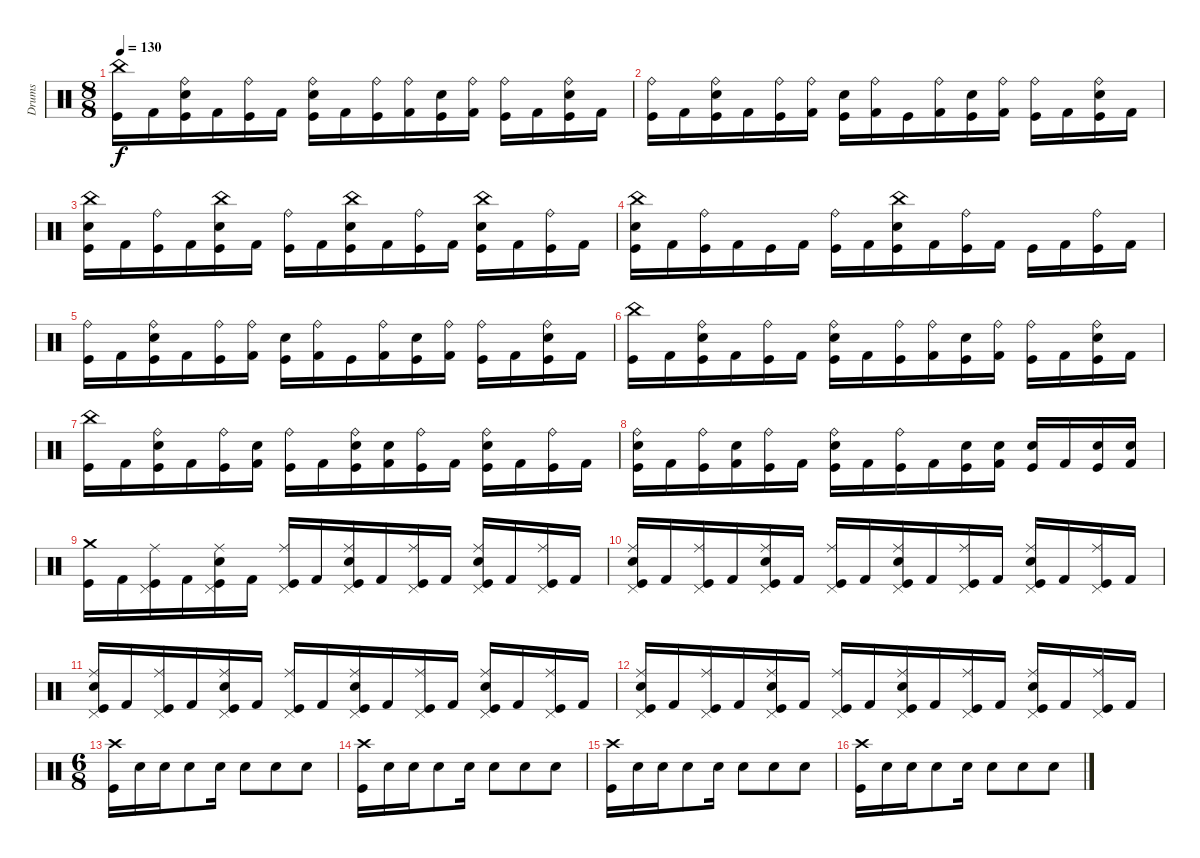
\track ("Drums" "Drums") {instrument percussion}
\staff {score}
\articulation defaults
\ts (8 8)
\tempo 130
\clef neutral
\ks c
("China (hit)" "Kick (hit)").16{dy f} "Kick (hit) 2".16 ("Ride (bell)" "Electric Snare (hit)" "Kick (hit)").16 "Kick (hit) 2".16 ("Ride (bell)" "Kick (hit)").16 "Kick (hit) 2".16 ("Ride (bell)" "Electric Snare (hit)" "Kick (hit)").16 "Kick (hit) 2".16 ("Ride (bell)" "Kick (hit)").16 ("Ride (bell)" "Kick (hit) 2").16 ("Electric Snare (hit)" "Kick (hit)").16 ("Ride (bell)" "Kick (hit) 2").16 ("Ride (bell)" "Kick (hit)").16 "Kick (hit) 2".16 ("Ride (bell)" "Electric Snare (hit)" "Kick (hit)").16 "Kick (hit) 2".16 |
("Ride (bell)" "Kick (hit)").16 "Kick (hit) 2".16 ("Ride (bell)" "Electric Snare (hit)" "Kick (hit)").16 "Kick (hit) 2".16 ("Ride (bell)" "Kick (hit)").16 ("Ride (bell)" "Kick (hit) 2").16 ("Electric Snare (hit)" "Kick (hit)").16 ("Ride (bell)" "Kick (hit) 2").16 "Kick (hit)".16 ("Ride (bell)" "Kick (hit) 2").16 ("Electric Snare (hit)" "Kick (hit)").16 ("Ride (bell)" "Kick (hit) 2").16 ("Ride (bell)" "Kick (hit)").16 "Kick (hit) 2".16 ("Ride (bell)" "Electric Snare (hit)" "Kick (hit)").16 "Kick (hit) 2".16 |
("China (hit)" "Snare (hit) 2" "Kick (hit)").16 "Kick (hit) 2".16 ("Ride (bell)" "Kick (hit)").16 "Kick (hit) 2".16 ("China (hit)" "Snare (hit) 2" "Kick (hit)").16 "Kick (hit) 2".16 ("Ride (bell)" "Kick (hit)").16 "Kick (hit) 2".16 ("China (hit)" "Snare (hit) 2" "Kick (hit)").16 "Kick (hit) 2".16 ("Ride (bell)" "Kick (hit)").16 "Kick (hit) 2".16 ("China (hit)" "Snare (hit) 2" "Kick (hit)").16 "Kick (hit) 2".16 ("Ride (bell)" "Kick (hit)").16 "Kick (hit) 2".16 |
("China (hit)" "Snare (hit) 2" "Kick (hit)").16 "Kick (hit) 2".16 ("Ride (bell)" "Kick (hit)").16 "Kick (hit) 2".16 "Kick (hit)".16 "Kick (hit) 2".16 ("Ride (bell)" "Kick (hit)").16 "Kick (hit) 2".16 ("China (hit)" "Snare (hit) 2" "Kick (hit)").16 "Kick (hit) 2".16 ("Ride (bell)" "Kick (hit)").16 "Kick (hit) 2".16 "Kick (hit)".16 "Kick (hit) 2".16 ("Ride (bell)" "Kick (hit)").16 "Kick (hit) 2".16 |
("Ride (bell)" "Kick (hit)").16 "Kick (hit) 2".16 ("Ride (bell)" "Electric Snare (hit)" "Kick (hit)").16 "Kick (hit) 2".16 ("Ride (bell)" "Kick (hit)").16 ("Ride (bell)" "Kick (hit) 2").16 ("Electric Snare (hit)" "Kick (hit)").16 ("Ride (bell)" "Kick (hit) 2").16 "Kick (hit)".16 ("Ride (bell)" "Kick (hit) 2").16 ("Electric Snare (hit)" "Kick (hit)").16 ("Ride (bell)" "Kick (hit) 2").16 ("Ride (bell)" "Kick (hit)").16 "Kick (hit) 2".16 ("Ride (bell)" "Electric Snare (hit)" "Kick (hit)").16 "Kick (hit) 2".16 |
("China (hit)" "Kick (hit)").16 "Kick (hit) 2".16 ("Ride (bell)" "Electric Snare (hit)" "Kick (hit)").16 "Kick (hit) 2".16 ("Ride (bell)" "Kick (hit)").16 "Kick (hit) 2".16 ("Ride (bell)" "Electric Snare (hit)" "Kick (hit)").16 "Kick (hit) 2".16 ("Ride (bell)" "Kick (hit)").16 ("Ride (bell)" "Kick (hit) 2").16 ("Electric Snare (hit)" "Kick (hit)").16 ("Ride (bell)" "Kick (hit) 2").16 ("Ride (bell)" "Kick (hit)").16 "Kick (hit) 2".16 ("Ride (bell)" "Electric Snare (hit)" "Kick (hit)").16 "Kick (hit) 2".16 |
("China (hit)" "Kick (hit)").16 "Kick (hit) 2".16 ("Ride (bell)" "Electric Snare (hit)" "Kick (hit)").16 "Kick (hit) 2".16 ("Ride (bell)" "Kick (hit)").16 ("Electric Snare (hit)" "Kick (hit) 2").16 ("Ride (bell)" "Kick (hit)").16 "Kick (hit) 2".16 ("Ride (bell)" "Electric Snare (hit)" "Kick (hit)").16 ("Electric Snare (hit)" "Kick (hit) 2").16 ("Ride (bell)" "Kick (hit)").16 "Kick (hit) 2".16 ("Ride (bell)" "Electric Snare (hit)" "Kick (hit)").16 "Kick (hit) 2".16 ("Ride (bell)" "Kick (hit)").16 "Kick (hit) 2".16 |
("Ride (bell)" "Electric Snare (hit)" "Kick (hit)").16 "Kick (hit) 2".16 ("Ride (bell)" "Kick (hit)").16 ("Electric Snare (hit)" "Kick (hit) 2").16 ("Ride (bell)" "Kick (hit)").16 "Kick (hit) 2".16 ("Ride (bell)" "Electric Snare (hit)" "Kick (hit)").16 "Kick (hit) 2".16 ("Ride (bell)" "Kick (hit)").16 "Kick (hit) 2".16 ("Snare (hit) 2" "Kick (hit)").16 ("Snare (hit) 2" "Kick (hit) 2").16 ("Snare (hit) 2" "Kick (hit)").16 "Kick (hit) 2".16 ("Snare (hit) 2" "Kick (hit)").16 ("Snare (hit) 2" "Kick (hit) 2").16 |
("Crash medium (hit)" "Kick (hit)").16 "Kick (hit) 2".16 ("Ride (middle)" "Pedal Hi-Hat (hit)" "Kick (hit)").16 "Kick (hit) 2".16 ("Ride (middle)" "Pedal Hi-Hat (hit)" "Kick (hit)" "Snare (hit) 2").16 "Kick (hit) 2".16 ("Ride (middle)" "Pedal Hi-Hat (hit)" "Kick (hit)").16 "Kick (hit) 2".16 ("Ride (middle)" "Pedal Hi-Hat (hit)" "Kick (hit)" "Snare (hit) 2").16 "Kick (hit) 2".16 ("Ride (middle)" "Pedal Hi-Hat (hit)" "Kick (hit)").16 "Kick (hit) 2".16 ("Ride (middle)" "Pedal Hi-Hat (hit)" "Kick (hit)" "Snare (hit) 2").16 "Kick (hit) 2".16 ("Ride (middle)" "Pedal Hi-Hat (hit)" "Kick (hit)").16 "Kick (hit) 2".16 |
("Snare (hit) 2" "Ride (middle)" "Kick (hit)" "Pedal Hi-Hat (hit)").16 "Kick (hit) 2".16 ("Ride (middle)" "Pedal Hi-Hat (hit)" "Kick (hit)").16 "Kick (hit) 2".16 ("Ride (middle)" "Pedal Hi-Hat (hit)" "Kick (hit)" "Snare (hit) 2").16 "Kick (hit) 2".16 ("Ride (middle)" "Pedal Hi-Hat (hit)" "Kick (hit)").16 "Kick (hit) 2".16 ("Ride (middle)" "Pedal Hi-Hat (hit)" "Kick (hit)" "Snare (hit) 2").16 "Kick (hit) 2".16 ("Ride (middle)" "Pedal Hi-Hat (hit)" "Kick (hit)").16 "Kick (hit) 2".16 ("Ride (middle)" "Pedal Hi-Hat (hit)" "Kick (hit)" "Snare (hit) 2").16 "Kick (hit) 2".16 ("Ride (middle)" "Pedal Hi-Hat (hit)" "Kick (hit)").16 "Kick (hit) 2".16 |
("Snare (hit) 2" "Ride (middle)" "Kick (hit)" "Pedal Hi-Hat (hit)").16 "Kick (hit) 2".16 ("Ride (middle)" "Pedal Hi-Hat (hit)" "Kick (hit)").16 "Kick (hit) 2".16 ("Ride (middle)" "Pedal Hi-Hat (hit)" "Kick (hit)" "Snare (hit) 2").16 "Kick (hit) 2".16 ("Ride (middle)" "Pedal Hi-Hat (hit)" "Kick (hit)").16 "Kick (hit) 2".16 ("Ride (middle)" "Pedal Hi-Hat (hit)" "Kick (hit)" "Snare (hit) 2").16 "Kick (hit) 2".16 ("Ride (middle)" "Pedal Hi-Hat (hit)" "Kick (hit)").16 "Kick (hit) 2".16 ("Ride (middle)" "Pedal Hi-Hat (hit)" "Kick (hit)" "Snare (hit) 2").16 "Kick (hit) 2".16 ("Ride (middle)" "Pedal Hi-Hat (hit)" "Kick (hit)").16 "Kick (hit) 2".16 |
("Snare (hit) 2" "Ride (middle)" "Kick (hit)" "Pedal Hi-Hat (hit)").16 "Kick (hit) 2".16 ("Ride (middle)" "Pedal Hi-Hat (hit)" "Kick (hit)").16 "Kick (hit) 2".16 ("Ride (middle)" "Pedal Hi-Hat (hit)" "Kick (hit)" "Snare (hit) 2").16 "Kick (hit) 2".16 ("Ride (middle)" "Pedal Hi-Hat (hit)" "Kick (hit)").16 "Kick (hit) 2".16 ("Ride (middle)" "Pedal Hi-Hat (hit)" "Kick (hit)" "Snare (hit) 2").16 "Kick (hit) 2".16 ("Ride (middle)" "Pedal Hi-Hat (hit)" "Kick (hit)").16 "Kick (hit) 2".16 ("Ride (middle)" "Pedal Hi-Hat (hit)" "Kick (hit)" "Snare (hit) 2").16 "Kick (hit) 2".16 ("Ride (middle)" "Pedal Hi-Hat (hit)" "Kick (hit)").16 "Kick (hit) 2".16 |
\ts (6 8)
("Kick (hit)" "Crash high (hit)").16 "Snare (hit) 2".16 "Snare (hit) 2".16 "Snare (hit) 2".8 "Snare (hit) 2".16 "Snare (hit) 2".8 "Snare (hit) 2".8 "Snare (hit) 2".8 |
("Kick (hit)" "Crash high (hit)").16 "Snare (hit) 2".16 "Snare (hit) 2".16 "Snare (hit) 2".8 "Snare (hit) 2".16 "Snare (hit) 2".8 "Snare (hit) 2".8 "Snare (hit) 2".8 |
("Kick (hit)" "Crash high (hit)").16 "Snare (hit) 2".16 "Snare (hit) 2".16 "Snare (hit) 2".8 "Snare (hit) 2".16 "Snare (hit) 2".8 "Snare (hit) 2".8 "Snare (hit) 2".8 |
("Kick (hit)" "Crash high (hit)").16 "Snare (hit) 2".16 "Snare (hit) 2".16 "Snare (hit) 2".8 "Snare (hit) 2".16 "Snare (hit) 2".8 "Snare (hit) 2".8 "Snare (hit) 2".8
